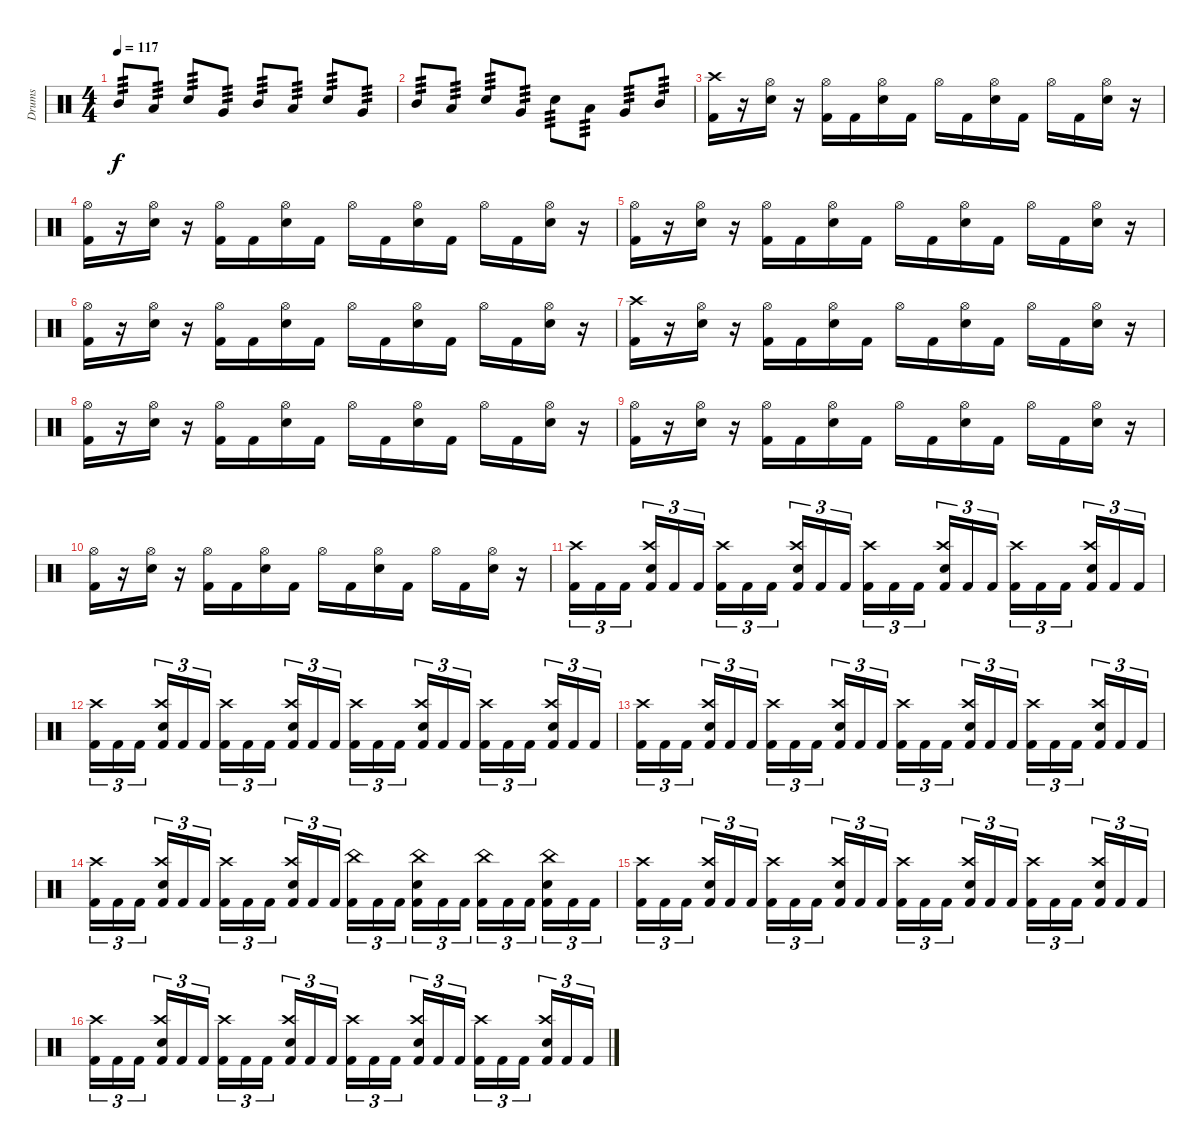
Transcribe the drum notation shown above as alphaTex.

\track ("Drums" "Drums") {instrument percussion}
\staff {score}
\articulation defaults
\ts (4 4)
\tempo 117
\clef neutral
\ks c "Mid Tom (hit)".8{tp 3 dy f} "Low Tom (hit)".8{tp 3} "Electric Snare (hit)".8{tp 3} "Very Low Tom (hit)".8{tp 3} "Mid Tom (hit)".8{tp 3} "Low Tom (hit)".8{tp 3} "Electric Snare (hit)".8{tp 3} "Very Low Tom (hit)".8{tp 3}
|
"Mid Tom (hit)".8{tp 3} "Low Tom (hit)".8{tp 3} "Electric Snare (hit)".8{tp 3} "Very Low Tom (hit)".8{tp 3} "Electric Snare (hit)".8{tp 3} "Low Tom (hit)".8{tp 3} "Very Low Tom (hit)".8{tp 3} "Mid Tom (hit)".8{tp 3} |
("Crash high (hit)" "Kick (hit) 2").16 r.16 ("Hi-Hat (open)" "Electric Snare (hit)").16 r.16 ("Hi-Hat (open)" "Kick (hit) 2").16 "Kick (hit) 2".16 ("Hi-Hat (open)" "Electric Snare (hit)").16 "Kick (hit) 2".16 "Hi-Hat (open)".16 "Kick (hit) 2".16 ("Hi-Hat (open)" "Electric Snare (hit)").16 "Kick (hit) 2".16 "Hi-Hat (open)".16 "Kick (hit) 2".16 ("Hi-Hat (open)" "Electric Snare (hit)").16 r.16 |
("Hi-Hat (open)" "Kick (hit) 2").16 r.16 ("Hi-Hat (open)" "Electric Snare (hit)").16 r.16 ("Hi-Hat (open)" "Kick (hit) 2").16 "Kick (hit) 2".16 ("Hi-Hat (open)" "Electric Snare (hit)").16 "Kick (hit) 2".16 "Hi-Hat (open)".16 "Kick (hit) 2".16 ("Hi-Hat (open)" "Electric Snare (hit)").16 "Kick (hit) 2".16 "Hi-Hat (open)".16 "Kick (hit) 2".16 ("Hi-Hat (open)" "Electric Snare (hit)").16 r.16 |
("Hi-Hat (open)" "Kick (hit) 2").16 r.16 ("Hi-Hat (open)" "Electric Snare (hit)").16 r.16 ("Hi-Hat (open)" "Kick (hit) 2").16 "Kick (hit) 2".16 ("Hi-Hat (open)" "Electric Snare (hit)").16 "Kick (hit) 2".16 "Hi-Hat (open)".16 "Kick (hit) 2".16 ("Hi-Hat (open)" "Electric Snare (hit)").16 "Kick (hit) 2".16 "Hi-Hat (open)".16 "Kick (hit) 2".16 ("Hi-Hat (open)" "Electric Snare (hit)").16 r.16 |
("Hi-Hat (open)" "Kick (hit) 2").16 r.16 ("Hi-Hat (open)" "Electric Snare (hit)").16 r.16 ("Hi-Hat (open)" "Kick (hit) 2").16 "Kick (hit) 2".16 ("Hi-Hat (open)" "Electric Snare (hit)").16 "Kick (hit) 2".16 "Hi-Hat (open)".16 "Kick (hit) 2".16 ("Hi-Hat (open)" "Electric Snare (hit)").16 "Kick (hit) 2".16 "Hi-Hat (open)".16 "Kick (hit) 2".16 ("Hi-Hat (open)" "Electric Snare (hit)").16 r.16 |
("Crash high (hit)" "Kick (hit) 2").16 r.16 ("Hi-Hat (open)" "Electric Snare (hit)").16 r.16 ("Hi-Hat (open)" "Kick (hit) 2").16 "Kick (hit) 2".16 ("Hi-Hat (open)" "Electric Snare (hit)").16 "Kick (hit) 2".16 "Hi-Hat (open)".16 "Kick (hit) 2".16 ("Hi-Hat (open)" "Electric Snare (hit)").16 "Kick (hit) 2".16 "Hi-Hat (open)".16 "Kick (hit) 2".16 ("Hi-Hat (open)" "Electric Snare (hit)").16 r.16 |
("Hi-Hat (open)" "Kick (hit) 2").16 r.16 ("Hi-Hat (open)" "Electric Snare (hit)").16 r.16 ("Hi-Hat (open)" "Kick (hit) 2").16 "Kick (hit) 2".16 ("Hi-Hat (open)" "Electric Snare (hit)").16 "Kick (hit) 2".16 "Hi-Hat (open)".16 "Kick (hit) 2".16 ("Hi-Hat (open)" "Electric Snare (hit)").16 "Kick (hit) 2".16 "Hi-Hat (open)".16 "Kick (hit) 2".16 ("Hi-Hat (open)" "Electric Snare (hit)").16 r.16 |
("Hi-Hat (open)" "Kick (hit) 2").16 r.16 ("Hi-Hat (open)" "Electric Snare (hit)").16 r.16 ("Hi-Hat (open)" "Kick (hit) 2").16 "Kick (hit) 2".16 ("Hi-Hat (open)" "Electric Snare (hit)").16 "Kick (hit) 2".16 "Hi-Hat (open)".16 "Kick (hit) 2".16 ("Hi-Hat (open)" "Electric Snare (hit)").16 "Kick (hit) 2".16 "Hi-Hat (open)".16 "Kick (hit) 2".16 ("Hi-Hat (open)" "Electric Snare (hit)").16 r.16 |
("Hi-Hat (open)" "Kick (hit) 2").16 r.16 ("Hi-Hat (open)" "Electric Snare (hit)").16 r.16 ("Hi-Hat (open)" "Kick (hit) 2").16 "Kick (hit) 2".16 ("Hi-Hat (open)" "Electric Snare (hit)").16 "Kick (hit) 2".16 "Hi-Hat (open)".16 "Kick (hit) 2".16 ("Hi-Hat (open)" "Electric Snare (hit)").16 "Kick (hit) 2".16 "Hi-Hat (open)".16 "Kick (hit) 2".16 ("Hi-Hat (open)" "Electric Snare (hit)").16 r.16 |
("Crash high (hit)" "Kick (hit) 2").16{tu (3 2)} "Kick (hit) 2".16{tu (3 2)} "Kick (hit) 2".16{tu (3 2) beam splitsecondary} ("Crash high (hit)" "Electric Snare (hit)" "Kick (hit) 2").16{tu (3 2)} "Kick (hit) 2".16{tu (3 2)} "Kick (hit) 2".16{tu (3 2)} ("Crash high (hit)" "Kick (hit) 2").16{tu (3 2)} "Kick (hit) 2".16{tu (3 2)} "Kick (hit) 2".16{tu (3 2) beam splitsecondary} ("Crash high (hit)" "Electric Snare (hit)" "Kick (hit) 2").16{tu (3 2)} "Kick (hit) 2".16{tu (3 2)} "Kick (hit) 2".16{tu (3 2)} ("Crash high (hit)" "Kick (hit) 2").16{tu (3 2)} "Kick (hit) 2".16{tu (3 2)} "Kick (hit) 2".16{tu (3 2) beam splitsecondary} ("Crash high (hit)" "Electric Snare (hit)" "Kick (hit) 2").16{tu (3 2)} "Kick (hit) 2".16{tu (3 2)} "Kick (hit) 2".16{tu (3 2)} ("Crash high (hit)" "Kick (hit) 2").16{tu (3 2)} "Kick (hit) 2".16{tu (3 2)} "Kick (hit) 2".16{tu (3 2) beam splitsecondary} ("Crash high (hit)" "Electric Snare (hit)" "Kick (hit) 2").16{tu (3 2)} "Kick (hit) 2".16{tu (3 2)} "Kick (hit) 2".16{tu (3 2)} |
("Crash high (hit)" "Kick (hit) 2").16{tu (3 2)} "Kick (hit) 2".16{tu (3 2)} "Kick (hit) 2".16{tu (3 2) beam splitsecondary} ("Crash high (hit)" "Electric Snare (hit)" "Kick (hit) 2").16{tu (3 2)} "Kick (hit) 2".16{tu (3 2)} "Kick (hit) 2".16{tu (3 2)} ("Crash high (hit)" "Kick (hit) 2").16{tu (3 2)} "Kick (hit) 2".16{tu (3 2)} "Kick (hit) 2".16{tu (3 2) beam splitsecondary} ("Crash high (hit)" "Electric Snare (hit)" "Kick (hit) 2").16{tu (3 2)} "Kick (hit) 2".16{tu (3 2)} "Kick (hit) 2".16{tu (3 2)} ("Crash high (hit)" "Kick (hit) 2").16{tu (3 2)} "Kick (hit) 2".16{tu (3 2)} "Kick (hit) 2".16{tu (3 2) beam splitsecondary} ("Crash high (hit)" "Electric Snare (hit)" "Kick (hit) 2").16{tu (3 2)} "Kick (hit) 2".16{tu (3 2)} "Kick (hit) 2".16{tu (3 2)} ("Crash high (hit)" "Kick (hit) 2").16{tu (3 2)} "Kick (hit) 2".16{tu (3 2)} "Kick (hit) 2".16{tu (3 2) beam splitsecondary} ("Crash high (hit)" "Electric Snare (hit)" "Kick (hit) 2").16{tu (3 2)} "Kick (hit) 2".16{tu (3 2)} "Kick (hit) 2".16{tu (3 2)} |
("Crash high (hit)" "Kick (hit) 2").16{tu (3 2)} "Kick (hit) 2".16{tu (3 2)} "Kick (hit) 2".16{tu (3 2) beam splitsecondary} ("Crash high (hit)" "Electric Snare (hit)" "Kick (hit) 2").16{tu (3 2)} "Kick (hit) 2".16{tu (3 2)} "Kick (hit) 2".16{tu (3 2)} ("Crash high (hit)" "Kick (hit) 2").16{tu (3 2)} "Kick (hit) 2".16{tu (3 2)} "Kick (hit) 2".16{tu (3 2) beam splitsecondary} ("Crash high (hit)" "Electric Snare (hit)" "Kick (hit) 2").16{tu (3 2)} "Kick (hit) 2".16{tu (3 2)} "Kick (hit) 2".16{tu (3 2)} ("Crash high (hit)" "Kick (hit) 2").16{tu (3 2)} "Kick (hit) 2".16{tu (3 2)} "Kick (hit) 2".16{tu (3 2) beam splitsecondary} ("Crash high (hit)" "Electric Snare (hit)" "Kick (hit) 2").16{tu (3 2)} "Kick (hit) 2".16{tu (3 2)} "Kick (hit) 2".16{tu (3 2)} ("Crash high (hit)" "Kick (hit) 2").16{tu (3 2)} "Kick (hit) 2".16{tu (3 2)} "Kick (hit) 2".16{tu (3 2) beam splitsecondary} ("Crash high (hit)" "Electric Snare (hit)" "Kick (hit) 2").16{tu (3 2)} "Kick (hit) 2".16{tu (3 2)} "Kick (hit) 2".16{tu (3 2)} |
("Crash high (hit)" "Kick (hit) 2").16{tu (3 2)} "Kick (hit) 2".16{tu (3 2)} "Kick (hit) 2".16{tu (3 2) beam splitsecondary} ("Crash high (hit)" "Electric Snare (hit)" "Kick (hit) 2").16{tu (3 2)} "Kick (hit) 2".16{tu (3 2)} "Kick (hit) 2".16{tu (3 2)} ("Crash high (hit)" "Kick (hit) 2").16{tu (3 2)} "Kick (hit) 2".16{tu (3 2)} "Kick (hit) 2".16{tu (3 2) beam splitsecondary} ("Crash high (hit)" "Electric Snare (hit)" "Kick (hit) 2").16{tu (3 2)} "Kick (hit) 2".16{tu (3 2)} "Kick (hit) 2".16{tu (3 2)} ("China (hit)" "Kick (hit) 2").16{tu (3 2)} "Kick (hit) 2".16{tu (3 2)} "Kick (hit) 2".16{tu (3 2) beam splitsecondary} ("China (hit)" "Electric Snare (hit)" "Kick (hit) 2").16{tu (3 2)} "Kick (hit) 2".16{tu (3 2)} "Kick (hit) 2".16{tu (3 2)} ("China (hit)" "Kick (hit) 2").16{tu (3 2)} "Kick (hit) 2".16{tu (3 2)} "Kick (hit) 2".16{tu (3 2) beam splitsecondary} ("China (hit)" "Electric Snare (hit)" "Kick (hit) 2").16{tu (3 2)} "Kick (hit) 2".16{tu (3 2)} "Kick (hit) 2".16{tu (3 2)} |
("Crash high (hit)" "Kick (hit) 2").16{tu (3 2)} "Kick (hit) 2".16{tu (3 2)} "Kick (hit) 2".16{tu (3 2) beam splitsecondary} ("Crash high (hit)" "Electric Snare (hit)" "Kick (hit) 2").16{tu (3 2)} "Kick (hit) 2".16{tu (3 2)} "Kick (hit) 2".16{tu (3 2)} ("Crash high (hit)" "Kick (hit) 2").16{tu (3 2)} "Kick (hit) 2".16{tu (3 2)} "Kick (hit) 2".16{tu (3 2) beam splitsecondary} ("Crash high (hit)" "Electric Snare (hit)" "Kick (hit) 2").16{tu (3 2)} "Kick (hit) 2".16{tu (3 2)} "Kick (hit) 2".16{tu (3 2)} ("Crash high (hit)" "Kick (hit) 2").16{tu (3 2)} "Kick (hit) 2".16{tu (3 2)} "Kick (hit) 2".16{tu (3 2) beam splitsecondary} ("Crash high (hit)" "Electric Snare (hit)" "Kick (hit) 2").16{tu (3 2)} "Kick (hit) 2".16{tu (3 2)} "Kick (hit) 2".16{tu (3 2)} ("Crash high (hit)" "Kick (hit) 2").16{tu (3 2)} "Kick (hit) 2".16{tu (3 2)} "Kick (hit) 2".16{tu (3 2) beam splitsecondary} ("Crash high (hit)" "Electric Snare (hit)" "Kick (hit) 2").16{tu (3 2)} "Kick (hit) 2".16{tu (3 2)} "Kick (hit) 2".16{tu (3 2)} |
("Crash high (hit)" "Kick (hit) 2").16{tu (3 2)} "Kick (hit) 2".16{tu (3 2)} "Kick (hit) 2".16{tu (3 2) beam splitsecondary} ("Crash high (hit)" "Electric Snare (hit)" "Kick (hit) 2").16{tu (3 2)} "Kick (hit) 2".16{tu (3 2)} "Kick (hit) 2".16{tu (3 2)} ("Crash high (hit)" "Kick (hit) 2").16{tu (3 2)} "Kick (hit) 2".16{tu (3 2)} "Kick (hit) 2".16{tu (3 2) beam splitsecondary} ("Crash high (hit)" "Electric Snare (hit)" "Kick (hit) 2").16{tu (3 2)} "Kick (hit) 2".16{tu (3 2)} "Kick (hit) 2".16{tu (3 2)} ("Crash high (hit)" "Kick (hit) 2").16{tu (3 2)} "Kick (hit) 2".16{tu (3 2)} "Kick (hit) 2".16{tu (3 2) beam splitsecondary} ("Crash high (hit)" "Electric Snare (hit)" "Kick (hit) 2").16{tu (3 2)} "Kick (hit) 2".16{tu (3 2)} "Kick (hit) 2".16{tu (3 2)} ("Crash high (hit)" "Kick (hit) 2").16{tu (3 2)} "Kick (hit) 2".16{tu (3 2)} "Kick (hit) 2".16{tu (3 2) beam splitsecondary} ("Crash high (hit)" "Electric Snare (hit)" "Kick (hit) 2").16{tu (3 2)} "Kick (hit) 2".16{tu (3 2)} "Kick (hit) 2".16{tu (3 2)}
